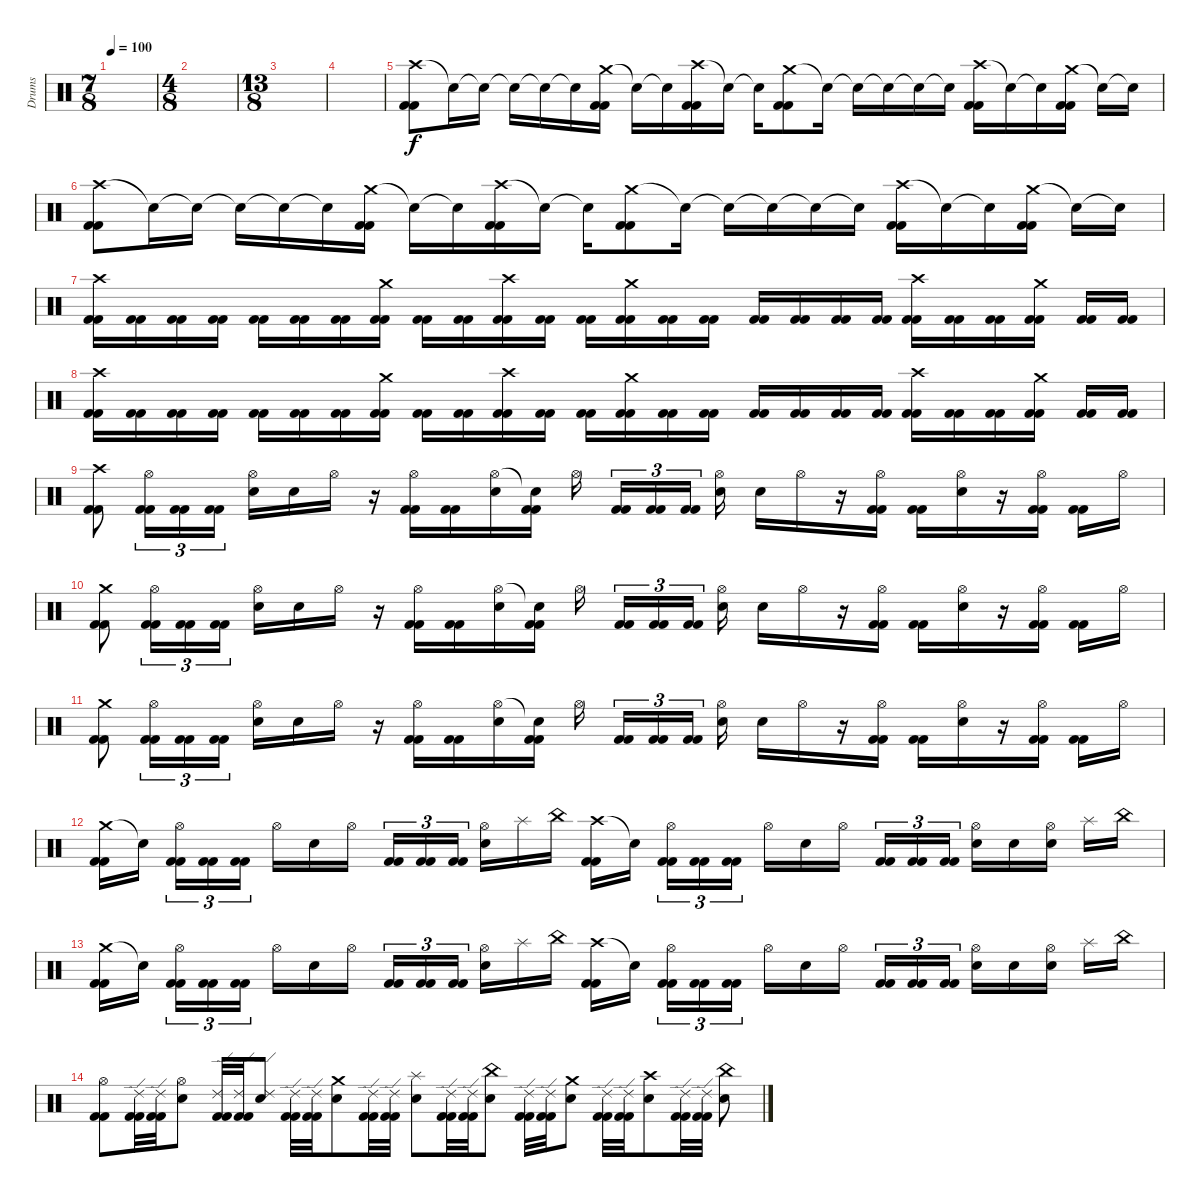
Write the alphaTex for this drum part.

\track ("Drums" "Drums") {instrument percussion}
\staff {score}
\articulation defaults
\ts (7 8)
\tempo 100
\clef neutral
\ks c
|
\ts (4 8)
|
\ts (13 8)
|
|
("Crash high (hit)" "Kick (hit) 2" "Kick (hit) 2").8 "Snare (hit)"{t}.16 "Snare (hit)"{t}.16 "Snare (hit)"{t}.16 "Snare (hit)"{t}.16 "Snare (hit)"{t}.16 ("Crash medium (hit)" "Kick (hit) 2" "Kick (hit) 2").16 "Snare (hit)"{t}.16 "Snare (hit)"{t}.16 ("Crash high (hit)" "Kick (hit) 2" "Kick (hit) 2").16 "Snare (hit)"{t}.16 "Snare (hit)"{t}.16 ("Crash medium (hit)" "Kick (hit) 2" "Kick (hit) 2").8 "Snare (hit)"{t}.16 "Snare (hit)"{t}.16 "Snare (hit)"{t}.16 "Snare (hit)"{t}.16 "Snare (hit)"{t}.16 ("Crash high (hit)" "Kick (hit) 2" "Kick (hit) 2").16 "Snare (hit)"{t}.16 "Snare (hit)"{t}.16 ("Crash medium (hit)" "Kick (hit) 2" "Kick (hit) 2").16 "Snare (hit)"{t}.16 "Snare (hit)"{t}.16 |
("Crash high (hit)" "Kick (hit) 2" "Kick (hit) 2").8 "Snare (hit)"{t}.16 "Snare (hit)"{t}.16 "Snare (hit)"{t}.16 "Snare (hit)"{t}.16 "Snare (hit)"{t}.16 ("Crash medium (hit)" "Kick (hit) 2" "Kick (hit) 2").16 "Snare (hit)"{t}.16 "Snare (hit)"{t}.16 ("Crash high (hit)" "Kick (hit) 2" "Kick (hit) 2").16 "Snare (hit)"{t}.16 "Snare (hit)"{t}.16 ("Crash medium (hit)" "Kick (hit) 2" "Kick (hit) 2").8 "Snare (hit)"{t}.16 "Snare (hit)"{t}.16 "Snare (hit)"{t}.16 "Snare (hit)"{t}.16 "Snare (hit)"{t}.16 ("Crash high (hit)" "Kick (hit) 2" "Kick (hit) 2").16 "Snare (hit)"{t}.16 "Snare (hit)"{t}.16 ("Crash medium (hit)" "Kick (hit) 2" "Kick (hit) 2").16 "Snare (hit)"{t}.16 "Snare (hit)"{t}.16 |
("Crash high (hit)" "Kick (hit) 2" "Kick (hit) 2").16 ("Kick (hit) 2" "Kick (hit) 2").16 ("Kick (hit) 2" "Kick (hit) 2").16 ("Kick (hit) 2" "Kick (hit) 2").16 ("Kick (hit) 2" "Kick (hit) 2").16 ("Kick (hit) 2" "Kick (hit) 2").16 ("Kick (hit) 2" "Kick (hit) 2").16 ("Crash medium (hit)" "Kick (hit) 2" "Kick (hit) 2").16 ("Kick (hit) 2" "Kick (hit) 2").16 ("Kick (hit) 2" "Kick (hit) 2").16 ("Crash high (hit)" "Kick (hit) 2" "Kick (hit) 2").16 ("Kick (hit) 2" "Kick (hit) 2").16 ("Kick (hit) 2" "Kick (hit) 2").16 ("Crash medium (hit)" "Kick (hit) 2" "Kick (hit) 2").16 ("Kick (hit) 2" "Kick (hit) 2").16 ("Kick (hit) 2" "Kick (hit) 2").16 ("Kick (hit) 2" "Kick (hit) 2").16 ("Kick (hit) 2" "Kick (hit) 2").16 ("Kick (hit) 2" "Kick (hit) 2").16 ("Kick (hit) 2" "Kick (hit) 2").16 ("Crash high (hit)" "Kick (hit) 2" "Kick (hit) 2").16 ("Kick (hit) 2" "Kick (hit) 2").16 ("Kick (hit) 2" "Kick (hit) 2").16 ("Crash medium (hit)" "Kick (hit) 2" "Kick (hit) 2").16 ("Kick (hit) 2" "Kick (hit) 2").16 ("Kick (hit) 2" "Kick (hit) 2").16 |
("Crash high (hit)" "Kick (hit) 2" "Kick (hit) 2").16 ("Kick (hit) 2" "Kick (hit) 2").16 ("Kick (hit) 2" "Kick (hit) 2").16 ("Kick (hit) 2" "Kick (hit) 2").16 ("Kick (hit) 2" "Kick (hit) 2").16 ("Kick (hit) 2" "Kick (hit) 2").16 ("Kick (hit) 2" "Kick (hit) 2").16 ("Crash medium (hit)" "Kick (hit) 2" "Kick (hit) 2").16 ("Kick (hit) 2" "Kick (hit) 2").16 ("Kick (hit) 2" "Kick (hit) 2").16 ("Crash high (hit)" "Kick (hit) 2" "Kick (hit) 2").16 ("Kick (hit) 2" "Kick (hit) 2").16 ("Kick (hit) 2" "Kick (hit) 2").16 ("Crash medium (hit)" "Kick (hit) 2" "Kick (hit) 2").16 ("Kick (hit) 2" "Kick (hit) 2").16 ("Kick (hit) 2" "Kick (hit) 2").16 ("Kick (hit) 2" "Kick (hit) 2").16 ("Kick (hit) 2" "Kick (hit) 2").16 ("Kick (hit) 2" "Kick (hit) 2").16 ("Kick (hit) 2" "Kick (hit) 2").16 ("Crash high (hit)" "Kick (hit) 2" "Kick (hit) 2").16 ("Kick (hit) 2" "Kick (hit) 2").16 ("Kick (hit) 2" "Kick (hit) 2").16 ("Crash medium (hit)" "Kick (hit) 2" "Kick (hit) 2").16 ("Kick (hit) 2" "Kick (hit) 2").16 ("Kick (hit) 2" "Kick (hit) 2").16 |
("Crash high (hit)" "Kick (hit) 2" "Kick (hit) 2").8 ("Hi-Hat (open)" "Kick (hit) 2" "Kick (hit) 2").16{tu (3 2)} ("Kick (hit) 2" "Kick (hit) 2").16{tu (3 2)} ("Kick (hit) 2" "Kick (hit) 2").16{tu (3 2)} ("Hi-Hat (open)" "Snare (hit) 2").16 "Snare (hit) 2".16 "Hi-Hat (open)".16 r.16 ("Hi-Hat (open)" "Kick (hit) 2" "Kick (hit) 2").16 ("Kick (hit) 2" "Kick (hit) 2").16 ("Hi-Hat (open)" "Snare (hit) 2").16 ("Snare (hit)"{t} "Kick (hit) 2" "Kick (hit) 2").16 "Hi-Hat (open)".16 ("Kick (hit) 2" "Kick (hit) 2").16{tu (3 2)} ("Kick (hit) 2" "Kick (hit) 2").16{tu (3 2)} ("Kick (hit) 2" "Kick (hit) 2").16{tu (3 2)} ("Hi-Hat (open)" "Snare (hit) 2").16 "Snare (hit) 2".16 "Hi-Hat (open)".16 r.16 ("Hi-Hat (open)" "Kick (hit) 2" "Kick (hit) 2").16 ("Kick (hit) 2" "Kick (hit) 2").16 ("Hi-Hat (open)" "Snare (hit) 2").16 r.16 ("Hi-Hat (open)" "Kick (hit) 2" "Kick (hit) 2").16 ("Kick (hit) 2" "Kick (hit) 2").16 "Hi-Hat (open)".16 |
("Crash medium (hit)" "Kick (hit) 2" "Kick (hit) 2").8 ("Hi-Hat (open)" "Kick (hit) 2" "Kick (hit) 2").16{tu (3 2)} ("Kick (hit) 2" "Kick (hit) 2").16{tu (3 2)} ("Kick (hit) 2" "Kick (hit) 2").16{tu (3 2)} ("Hi-Hat (open)" "Snare (hit) 2").16 "Snare (hit) 2".16 "Hi-Hat (open)".16 r.16 ("Hi-Hat (open)" "Kick (hit) 2" "Kick (hit) 2").16 ("Kick (hit) 2" "Kick (hit) 2").16 ("Hi-Hat (open)" "Snare (hit) 2").16 ("Snare (hit)"{t} "Kick (hit) 2" "Kick (hit) 2").16 "Hi-Hat (open)".16 ("Kick (hit) 2" "Kick (hit) 2").16{tu (3 2)} ("Kick (hit) 2" "Kick (hit) 2").16{tu (3 2)} ("Kick (hit) 2" "Kick (hit) 2").16{tu (3 2)} ("Hi-Hat (open)" "Snare (hit) 2").16 "Snare (hit) 2".16 "Hi-Hat (open)".16 r.16 ("Hi-Hat (open)" "Kick (hit) 2" "Kick (hit) 2").16 ("Kick (hit) 2" "Kick (hit) 2").16 ("Hi-Hat (open)" "Snare (hit) 2").16 r.16 ("Hi-Hat (open)" "Kick (hit) 2" "Kick (hit) 2").16 ("Kick (hit) 2" "Kick (hit) 2").16 "Hi-Hat (open)".16 |
("Crash medium (hit)" "Kick (hit) 2" "Kick (hit) 2").8 ("Hi-Hat (open)" "Kick (hit) 2" "Kick (hit) 2").16{tu (3 2)} ("Kick (hit) 2" "Kick (hit) 2").16{tu (3 2)} ("Kick (hit) 2" "Kick (hit) 2").16{tu (3 2)} ("Hi-Hat (open)" "Snare (hit) 2").16 "Snare (hit) 2".16 "Hi-Hat (open)".16 r.16 ("Hi-Hat (open)" "Kick (hit) 2" "Kick (hit) 2").16 ("Kick (hit) 2" "Kick (hit) 2").16 ("Hi-Hat (open)" "Snare (hit) 2").16 ("Snare (hit)"{t} "Kick (hit) 2" "Kick (hit) 2").16 "Hi-Hat (open)".16 ("Kick (hit) 2" "Kick (hit) 2").16{tu (3 2)} ("Kick (hit) 2" "Kick (hit) 2").16{tu (3 2)} ("Kick (hit) 2" "Kick (hit) 2").16{tu (3 2)} ("Hi-Hat (open)" "Snare (hit) 2").16 "Snare (hit) 2".16 "Hi-Hat (open)".16 r.16 ("Hi-Hat (open)" "Kick (hit) 2" "Kick (hit) 2").16 ("Kick (hit) 2" "Kick (hit) 2").16 ("Hi-Hat (open)" "Snare (hit) 2").16 r.16 ("Hi-Hat (open)" "Kick (hit) 2" "Kick (hit) 2").16 ("Kick (hit) 2" "Kick (hit) 2").16 "Hi-Hat (open)".16 |
("Crash medium (hit)" "Kick (hit) 2" "Kick (hit) 2").16 "Snare (hit)"{t}.16 ("Hi-Hat (open)" "Kick (hit) 2" "Kick (hit) 2").16{tu (3 2)} ("Kick (hit) 2" "Kick (hit) 2").16{tu (3 2)} ("Kick (hit) 2" "Kick (hit) 2").16{tu (3 2)} "Hi-Hat (open)".16 "Snare (hit) 2".16 "Hi-Hat (open)".16 ("Kick (hit) 2" "Kick (hit) 2").16{tu (3 2)} ("Kick (hit) 2" "Kick (hit) 2").16{tu (3 2)} ("Kick (hit) 2" "Kick (hit) 2").16{tu (3 2)} ("Hi-Hat (open)" "Snare (hit) 2").16 "Splash (hit)".16 "China (hit)".16 ("Crash high (hit)" "Kick (hit) 2" "Kick (hit) 2").16 "Snare (hit)"{t}.16 ("Hi-Hat (open)" "Kick (hit) 2" "Kick (hit) 2").16{tu (3 2)} ("Kick (hit) 2" "Kick (hit) 2").16{tu (3 2)} ("Kick (hit) 2" "Kick (hit) 2").16{tu (3 2)} "Hi-Hat (open)".16 "Snare (hit) 2".16 "Hi-Hat (open)".16 ("Kick (hit) 2" "Kick (hit) 2").16{tu (3 2)} ("Kick (hit) 2" "Kick (hit) 2").16{tu (3 2)} ("Kick (hit) 2" "Kick (hit) 2").16{tu (3 2)} ("Hi-Hat (open)" "Snare (hit) 2").16 "Snare (hit) 2".16 ("Hi-Hat (open)" "Snare (hit) 2").16 "Splash (hit)".16 "China (hit)".16 |
("Crash medium (hit)" "Kick (hit) 2" "Kick (hit) 2").16 "Snare (hit)"{t}.16 ("Hi-Hat (open)" "Kick (hit) 2" "Kick (hit) 2").16{tu (3 2)} ("Kick (hit) 2" "Kick (hit) 2").16{tu (3 2)} ("Kick (hit) 2" "Kick (hit) 2").16{tu (3 2)} "Hi-Hat (open)".16 "Snare (hit) 2".16 "Hi-Hat (open)".16 ("Kick (hit) 2" "Kick (hit) 2").16{tu (3 2)} ("Kick (hit) 2" "Kick (hit) 2").16{tu (3 2)} ("Kick (hit) 2" "Kick (hit) 2").16{tu (3 2)} ("Hi-Hat (open)" "Snare (hit) 2").16 "Splash (hit)".16 "China (hit)".16 ("Crash high (hit)" "Kick (hit) 2" "Kick (hit) 2").16 "Snare (hit)"{t}.16 ("Hi-Hat (open)" "Kick (hit) 2" "Kick (hit) 2").16{tu (3 2)} ("Kick (hit) 2" "Kick (hit) 2").16{tu (3 2)} ("Kick (hit) 2" "Kick (hit) 2").16{tu (3 2)} "Hi-Hat (open)".16 "Snare (hit) 2".16 "Hi-Hat (open)".16 ("Kick (hit) 2" "Kick (hit) 2").16{tu (3 2)} ("Kick (hit) 2" "Kick (hit) 2").16{tu (3 2)} ("Kick (hit) 2" "Kick (hit) 2").16{tu (3 2)} ("Hi-Hat (open)" "Snare (hit) 2").16 "Snare (hit) 2".16 ("Hi-Hat (open)" "Snare (hit) 2").16 "Splash (hit)".16 "China (hit)".16 |
("Hi-Hat (open)" "Kick (hit) 2" "Kick (hit) 2").8 ("Ride (edge) 2" "Kick (hit) 2" "Kick (hit) 2").32 ("Ride (edge) 2" "Kick (hit) 2" "Kick (hit) 2").32 ("Hi-Hat (open)" "Snare (hit) 2").8 ("Ride (edge) 2" "Kick (hit) 2" "Kick (hit) 2").32 ("Ride (edge) 2" "Kick (hit) 2" "Kick (hit) 2").32 ("Ride (edge) 2" "Snare (hit) 2").8 ("Ride (edge) 2" "Kick (hit) 2" "Kick (hit) 2").32 ("Ride (edge) 2" "Kick (hit) 2" "Kick (hit) 2").32 ("Crash medium (hit)" "Snare (hit) 2").8 ("Ride (edge) 2" "Kick (hit) 2" "Kick (hit) 2").32 ("Ride (edge) 2" "Kick (hit) 2" "Kick (hit) 2").32 ("Splash (hit)" "Snare (hit) 2").8 ("Ride (edge) 2" "Kick (hit) 2" "Kick (hit) 2").32 ("Ride (edge) 2" "Kick (hit) 2" "Kick (hit) 2").32 ("China (hit)" "Snare (hit) 2").8 ("Ride (edge) 2" "Kick (hit) 2" "Kick (hit) 2").32 ("Ride (edge) 2" "Kick (hit) 2" "Kick (hit) 2").32 ("Crash medium (hit)" "Snare (hit) 2").8 ("Ride (edge) 2" "Kick (hit) 2" "Kick (hit) 2").32 ("Ride (edge) 2" "Kick (hit) 2" "Kick (hit) 2").32 ("Crash high (hit)" "Snare (hit) 2").8 ("Ride (edge) 2" "Kick (hit) 2" "Kick (hit) 2").32 ("Ride (edge) 2" "Kick (hit) 2" "Kick (hit) 2").32 ("China (hit)" "Snare (hit) 2").8
